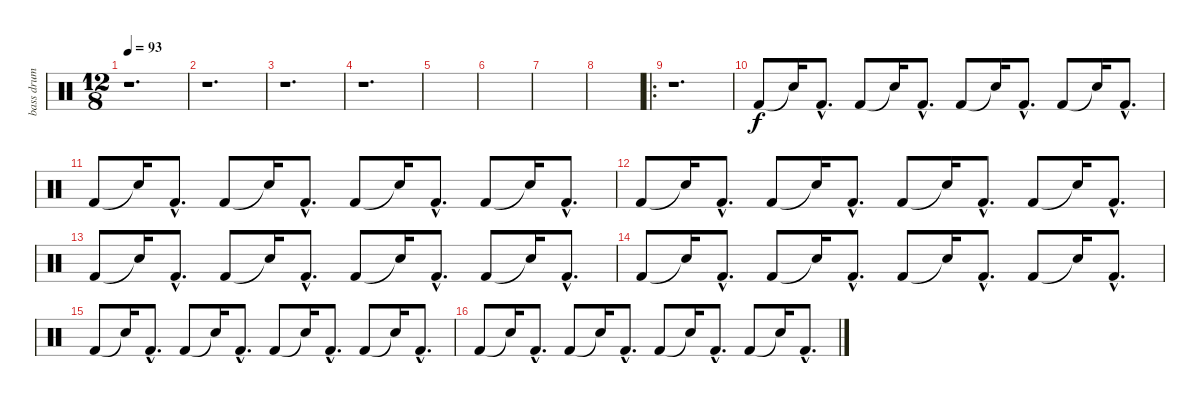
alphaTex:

\track ("bass drum" "bass drum") {instrument percussion}
\staff {score}
\articulation defaults
\ts (12 8)
\tempo 93
\clef neutral
\ks c
r.1{d dy f} |
r.1{d} |
r.1{d} |
r.1{d} |
|
|
|
|
\ro
r.1{d} |
"Kick (hit) 2".8 "Snare (hit)"{t}.16 "Kick (hit) 2"{hac}.8{d} "Kick (hit) 2".8 "Snare (hit)"{t}.16 "Kick (hit) 2"{hac}.8{d} "Kick (hit) 2".8 "Snare (hit)"{t}.16 "Kick (hit) 2"{hac}.8{d} "Kick (hit) 2".8 "Snare (hit)"{t}.16 "Kick (hit) 2"{hac}.8{d} |
"Kick (hit) 2".8 "Snare (hit)"{t}.16 "Kick (hit) 2"{hac}.8{d} "Kick (hit) 2".8 "Snare (hit)"{t}.16 "Kick (hit) 2"{hac}.8{d} "Kick (hit) 2".8 "Snare (hit)"{t}.16 "Kick (hit) 2"{hac}.8{d} "Kick (hit) 2".8 "Snare (hit)"{t}.16 "Kick (hit) 2"{hac}.8{d} |
"Kick (hit) 2".8 "Snare (hit)"{t}.16 "Kick (hit) 2"{hac}.8{d} "Kick (hit) 2".8 "Snare (hit)"{t}.16 "Kick (hit) 2"{hac}.8{d} "Kick (hit) 2".8 "Snare (hit)"{t}.16 "Kick (hit) 2"{hac}.8{d} "Kick (hit) 2".8 "Snare (hit)"{t}.16 "Kick (hit) 2"{hac}.8{d} |
"Kick (hit) 2".8 "Snare (hit)"{t}.16 "Kick (hit) 2"{hac}.8{d} "Kick (hit) 2".8 "Snare (hit)"{t}.16 "Kick (hit) 2"{hac}.8{d} "Kick (hit) 2".8 "Snare (hit)"{t}.16 "Kick (hit) 2"{hac}.8{d} "Kick (hit) 2".8 "Snare (hit)"{t}.16 "Kick (hit) 2"{hac}.8{d} |
"Kick (hit) 2".8 "Snare (hit)"{t}.16 "Kick (hit) 2"{hac}.8{d} "Kick (hit) 2".8 "Snare (hit)"{t}.16 "Kick (hit) 2"{hac}.8{d} "Kick (hit) 2".8 "Snare (hit)"{t}.16 "Kick (hit) 2"{hac}.8{d} "Kick (hit) 2".8 "Snare (hit)"{t}.16 "Kick (hit) 2"{hac}.8{d} |
"Kick (hit) 2".8 "Snare (hit)"{t}.16 "Kick (hit) 2"{hac}.8{d} "Kick (hit) 2".8 "Snare (hit)"{t}.16 "Kick (hit) 2"{hac}.8{d} "Kick (hit) 2".8 "Snare (hit)"{t}.16 "Kick (hit) 2"{hac}.8{d} "Kick (hit) 2".8 "Snare (hit)"{t}.16 "Kick (hit) 2"{hac}.8{d} |
"Kick (hit) 2".8 "Snare (hit)"{t}.16 "Kick (hit) 2"{hac}.8{d} "Kick (hit) 2".8 "Snare (hit)"{t}.16 "Kick (hit) 2"{hac}.8{d} "Kick (hit) 2".8 "Snare (hit)"{t}.16 "Kick (hit) 2"{hac}.8{d} "Kick (hit) 2".8 "Snare (hit)"{t}.16 "Kick (hit) 2"{hac}.8{d}
